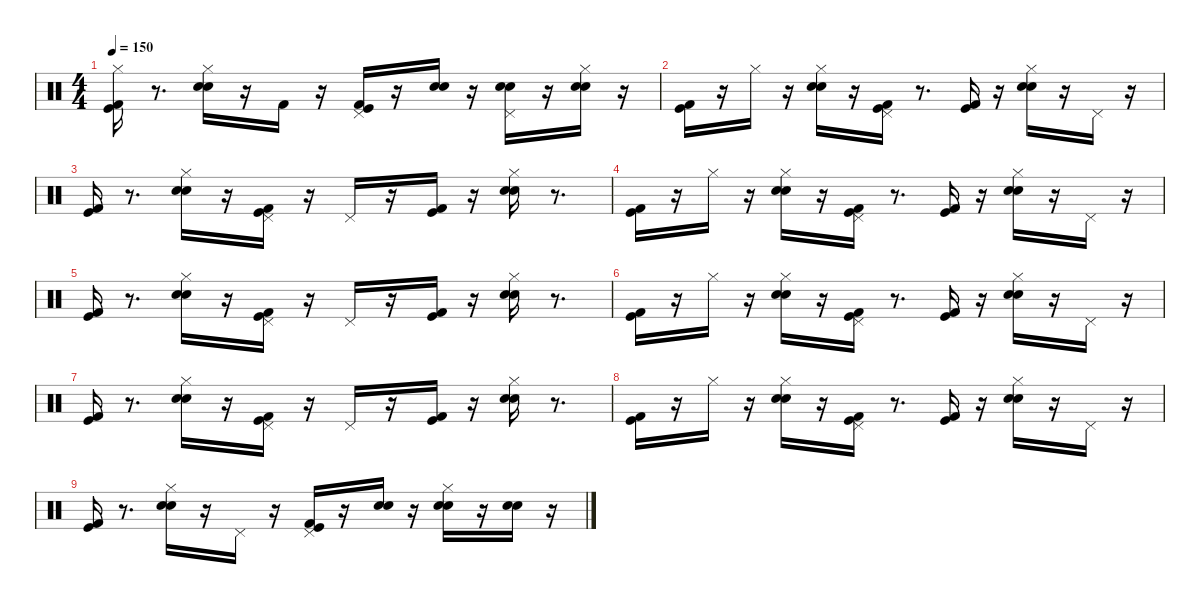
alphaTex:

\defaultSystemsLayout 4
\hideDynamics
\bracketExtendMode nobrackets
\singleTrackTrackNamePolicy hidden
\multiTrackTrackNamePolicy hidden
\firstSystemTrackNameMode fullname
\firstSystemTrackNameOrientation horizontal
\otherSystemsTrackNameOrientation horizontal
\track ("Track 8" "drm.") {instrument percussion}
\staff {score}
\articulation defaults
\ts (4 4)
\tempo 150
\clef neutral
\ks c
("Hi-Hat (closed)" "Kick (hit) 2" "Kick (hit)").16{dy fff beam Down} r.8{d beam Down} ("Hi-Hat (closed)" "Snare (hit) 2" "Snare (hit) 2").16{beam Down} r.16{beam Down} "Kick (hit) 2".16{beam Down} r.16{beam Down} ("Pedal Hi-Hat (hit)" "Kick (hit) 2" "Kick (hit)").16{beam Up} r.16{beam Up} ("Snare (hit) 2" "Snare (hit) 2").16{dy f beam Up} r.16{beam Up} ("Pedal Hi-Hat (hit)" "Snare (hit) 2" "Snare (hit) 2").16{dy fff beam Down} r.16{beam Down} ("Snare (hit) 2" "Snare (hit) 2" "Hi-Hat (closed)").16{dy f beam Down} r.16{beam Down} |
("Kick (hit)" "Kick (hit) 2").16{dy fff beam Down} r.16{beam Down} "Hi-Hat (closed)".16{beam Down} r.16{beam Down} ("Hi-Hat (closed)" "Snare (hit) 2" "Snare (hit) 2").16{beam Down} r.16{beam Down} ("Pedal Hi-Hat (hit)" "Kick (hit)" "Kick (hit) 2").16{beam Down} r.8{d beam Down} ("Kick (hit)" "Kick (hit) 2").16{beam Up} r.16{beam Up} ("Hi-Hat (closed)" "Snare (hit) 2" "Snare (hit) 2").16{beam Down} r.16{beam Down} "Pedal Hi-Hat (hit)".16{beam Down} r.16{beam Down} |
("Kick (hit)" "Kick (hit) 2").16{beam Up} r.8{d beam Up} ("Hi-Hat (closed)" "Snare (hit) 2" "Snare (hit) 2").16{beam Down} r.16{beam Down} ("Pedal Hi-Hat (hit)" "Kick (hit)" "Kick (hit) 2").16{beam Down} r.16{beam Down} "Pedal Hi-Hat (hit)".16{beam Up} r.16{beam Up} ("Kick (hit)" "Kick (hit) 2").16{beam Up} r.16{beam Up} ("Hi-Hat (closed)" "Snare (hit) 2" "Snare (hit) 2").16{beam Down} r.8{d beam Down} |
("Kick (hit)" "Kick (hit) 2").16{beam Down} r.16{beam Down} "Hi-Hat (closed)".16{beam Down} r.16{beam Down} ("Hi-Hat (closed)" "Snare (hit) 2" "Snare (hit) 2").16{beam Down} r.16{beam Down} ("Pedal Hi-Hat (hit)" "Kick (hit)" "Kick (hit) 2").16{beam Down} r.8{d beam Down} ("Kick (hit)" "Kick (hit) 2").16{beam Up} r.16{beam Up} ("Hi-Hat (closed)" "Snare (hit) 2" "Snare (hit) 2").16{beam Down} r.16{beam Down} "Pedal Hi-Hat (hit)".16{beam Down} r.16{beam Down} |
("Kick (hit)" "Kick (hit) 2").16{beam Up} r.8{d beam Up} ("Hi-Hat (closed)" "Snare (hit) 2" "Snare (hit) 2").16{beam Down} r.16{beam Down} ("Pedal Hi-Hat (hit)" "Kick (hit)" "Kick (hit) 2").16{beam Down} r.16{beam Down} "Pedal Hi-Hat (hit)".16{beam Up} r.16{beam Up} ("Kick (hit)" "Kick (hit) 2").16{beam Up} r.16{beam Up} ("Hi-Hat (closed)" "Snare (hit) 2" "Snare (hit) 2").16{beam Down} r.8{d beam Down} |
("Kick (hit)" "Kick (hit) 2").16{beam Down} r.16{beam Down} "Hi-Hat (closed)".16{beam Down} r.16{beam Down} ("Hi-Hat (closed)" "Snare (hit) 2" "Snare (hit) 2").16{beam Down} r.16{beam Down} ("Pedal Hi-Hat (hit)" "Kick (hit)" "Kick (hit) 2").16{beam Down} r.8{d beam Down} ("Kick (hit)" "Kick (hit) 2").16{beam Up} r.16{beam Up} ("Hi-Hat (closed)" "Snare (hit) 2" "Snare (hit) 2").16{beam Down} r.16{beam Down} "Pedal Hi-Hat (hit)".16{beam Down} r.16{beam Down} |
("Kick (hit)" "Kick (hit) 2").16{beam Up} r.8{d beam Up} ("Hi-Hat (closed)" "Snare (hit) 2" "Snare (hit) 2").16{beam Down} r.16{beam Down} ("Pedal Hi-Hat (hit)" "Kick (hit)" "Kick (hit) 2").16{beam Down} r.16{beam Down} "Pedal Hi-Hat (hit)".16{beam Up} r.16{beam Up} ("Kick (hit)" "Kick (hit) 2").16{beam Up} r.16{beam Up} ("Hi-Hat (closed)" "Snare (hit) 2" "Snare (hit) 2").16{beam Down} r.8{d beam Down} |
("Kick (hit)" "Kick (hit) 2").16{beam Down} r.16{beam Down} "Hi-Hat (closed)".16{beam Down} r.16{beam Down} ("Hi-Hat (closed)" "Snare (hit) 2" "Snare (hit) 2").16{beam Down} r.16{beam Down} ("Pedal Hi-Hat (hit)" "Kick (hit)" "Kick (hit) 2").16{beam Down} r.8{d beam Down} ("Kick (hit)" "Kick (hit) 2").16{beam Up} r.16{beam Up} ("Hi-Hat (closed)" "Snare (hit) 2" "Snare (hit) 2").16{beam Down} r.16{beam Down} "Pedal Hi-Hat (hit)".16{beam Down} r.16{beam Down} |
("Kick (hit)" "Kick (hit) 2").16{beam Up} r.8{d beam Up} ("Hi-Hat (closed)" "Snare (hit) 2" "Snare (hit) 2").16{beam Down} r.16{beam Down} "Pedal Hi-Hat (hit)".16{beam Down} r.16{beam Down} ("Kick (hit)" "Kick (hit) 2" "Pedal Hi-Hat (hit)").16{beam Up} r.16{beam Up} ("Snare (hit) 2" "Snare (hit) 2").16{beam Up} r.16{beam Up} ("Hi-Hat (closed)" "Snare (hit) 2" "Snare (hit) 2").16{beam Down} r.16{beam Down} ("Snare (hit) 2" "Snare (hit) 2").16{beam Down} r.16{beam Down}
